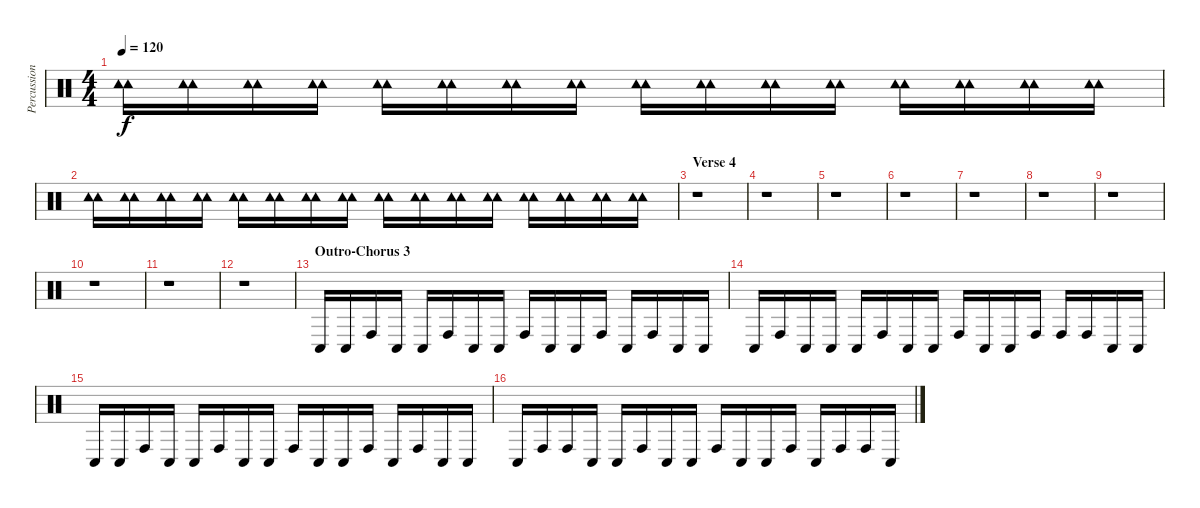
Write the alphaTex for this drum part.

\track ("Percussions" "Percussion") {instrument percussion}
\staff {score}
\articulation defaults
\ts (4 4)
\tempo 120
\clef neutral
\ks c
("Tambourine (hit)" "Tambourine (hit)").16{dy f} ("Tambourine (hit)" "Tambourine (hit)").16 ("Tambourine (hit)" "Tambourine (hit)").16 ("Tambourine (hit)" "Tambourine (hit)").16 ("Tambourine (hit)" "Tambourine (hit)").16 ("Tambourine (hit)" "Tambourine (hit)").16 ("Tambourine (hit)" "Tambourine (hit)").16 ("Tambourine (hit)" "Tambourine (hit)").16 ("Tambourine (hit)" "Tambourine (hit)").16 ("Tambourine (hit)" "Tambourine (hit)").16 ("Tambourine (hit)" "Tambourine (hit)").16 ("Tambourine (hit)" "Tambourine (hit)").16 ("Tambourine (hit)" "Tambourine (hit)").16 ("Tambourine (hit)" "Tambourine (hit)").16 ("Tambourine (hit)" "Tambourine (hit)").16 ("Tambourine (hit)" "Tambourine (hit)").16 |
("Tambourine (hit)" "Tambourine (hit)").16 ("Tambourine (hit)" "Tambourine (hit)").16 ("Tambourine (hit)" "Tambourine (hit)").16 ("Tambourine (hit)" "Tambourine (hit)").16 ("Tambourine (hit)" "Tambourine (hit)").16 ("Tambourine (hit)" "Tambourine (hit)").16 ("Tambourine (hit)" "Tambourine (hit)").16 ("Tambourine (hit)" "Tambourine (hit)").16 ("Tambourine (hit)" "Tambourine (hit)").16 ("Tambourine (hit)" "Tambourine (hit)").16 ("Tambourine (hit)" "Tambourine (hit)").16 ("Tambourine (hit)" "Tambourine (hit)").16 ("Tambourine (hit)" "Tambourine (hit)").16 ("Tambourine (hit)" "Tambourine (hit)").16 ("Tambourine (hit)" "Tambourine (hit)").16 ("Tambourine (hit)" "Tambourine (hit)").16 |
\section ("" "Verse 4")
r.1 |
r.1 |
r.1 |
r.1 |
r.1 |
r.1 |
r.1 |
r.1 |
r.1 |
r.1 |
\section ("" "Outro-Chorus 3")
"Conga low (hit)".16 "Conga low (hit)".16 "Conga high (hit)".16 "Conga low (hit)".16 "Conga low (hit)".16 "Conga high (hit)".16 "Conga low (hit)".16 "Conga low (hit)".16 "Conga high (hit)".16 "Conga low (hit)".16 "Conga low (hit)".16 "Conga high (hit)".16 "Conga low (hit)".16 "Conga high (hit)".16 "Conga low (hit)".16 "Conga low (hit)".16 |
"Conga low (hit)".16 "Conga high (hit)".16 "Conga low (hit)".16 "Conga low (hit)".16 "Conga low (hit)".16 "Conga high (hit)".16 "Conga low (hit)".16 "Conga low (hit)".16 "Conga high (hit)".16 "Conga low (hit)".16 "Conga low (hit)".16 "Conga high (hit)".16 "Conga high (hit)".16 "Conga high (hit)".16 "Conga low (hit)".16 "Conga low (hit)".16 |
"Conga low (hit)".16 "Conga low (hit)".16 "Conga high (hit)".16 "Conga low (hit)".16 "Conga low (hit)".16 "Conga high (hit)".16 "Conga low (hit)".16 "Conga low (hit)".16 "Conga high (hit)".16 "Conga low (hit)".16 "Conga low (hit)".16 "Conga high (hit)".16 "Conga low (hit)".16 "Conga high (hit)".16 "Conga low (hit)".16 "Conga low (hit)".16 |
"Conga low (hit)".16 "Conga high (hit)".16 "Conga high (hit)".16 "Conga low (hit)".16 "Conga low (hit)".16 "Conga high (hit)".16 "Conga low (hit)".16 "Conga low (hit)".16 "Conga high (hit)".16 "Conga low (hit)".16 "Conga low (hit)".16 "Conga high (hit)".16 "Conga low (hit)".16 "Conga high (hit)".16 "Conga high (hit)".16 "Conga low (hit)".16
